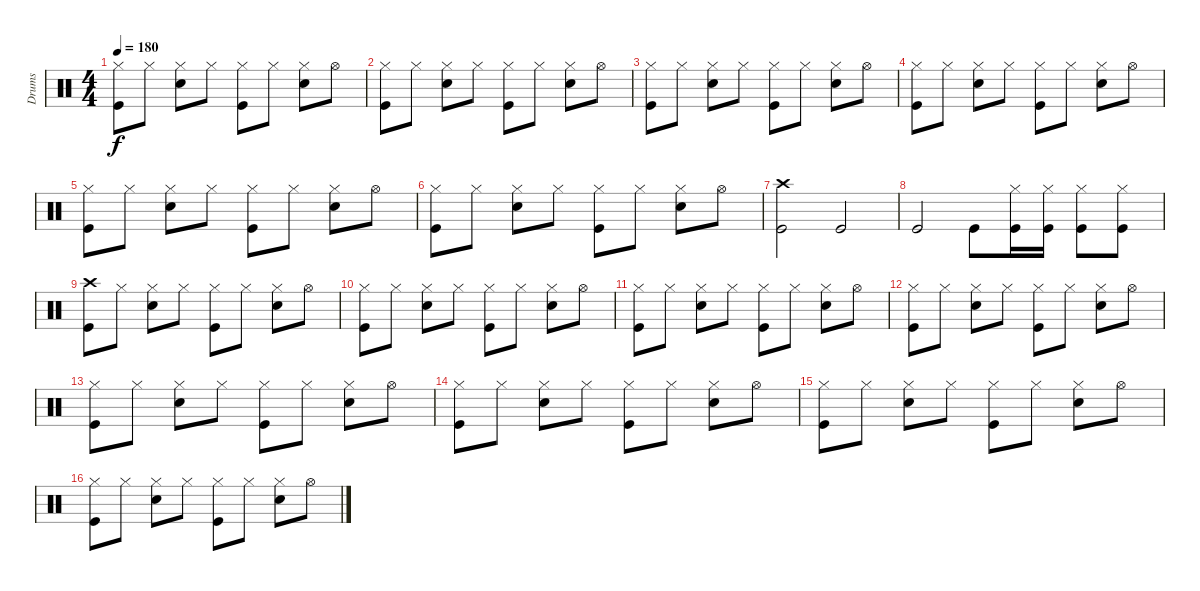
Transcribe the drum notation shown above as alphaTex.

\track ("Drums" "Drums") {instrument percussion}
\staff {score}
\articulation defaults
\ts (4 4)
\tempo 180
\clef neutral
\ks c
("Kick (hit)" "Hi-Hat (closed)").8{dy f} "Hi-Hat (closed)".8 ("Snare (hit) 2" "Hi-Hat (closed)").8 "Hi-Hat (closed)".8 ("Kick (hit)" "Hi-Hat (closed)").8 "Hi-Hat (closed)".8 ("Snare (hit) 2" "Hi-Hat (closed)").8 "Hi-Hat (open)".8 |
("Kick (hit)" "Hi-Hat (closed)").8 "Hi-Hat (closed)".8 ("Snare (hit) 2" "Hi-Hat (closed)").8 "Hi-Hat (closed)".8 ("Kick (hit)" "Hi-Hat (closed)").8 "Hi-Hat (closed)".8 ("Snare (hit) 2" "Hi-Hat (closed)").8 "Hi-Hat (open)".8 |
("Kick (hit)" "Hi-Hat (closed)").8 "Hi-Hat (closed)".8 ("Snare (hit) 2" "Hi-Hat (closed)").8 "Hi-Hat (closed)".8 ("Kick (hit)" "Hi-Hat (closed)").8 "Hi-Hat (closed)".8 ("Snare (hit) 2" "Hi-Hat (closed)").8 "Hi-Hat (open)".8 |
("Kick (hit)" "Hi-Hat (closed)").8 "Hi-Hat (closed)".8 ("Snare (hit) 2" "Hi-Hat (closed)").8 "Hi-Hat (closed)".8 ("Kick (hit)" "Hi-Hat (closed)").8 "Hi-Hat (closed)".8 ("Snare (hit) 2" "Hi-Hat (closed)").8 "Hi-Hat (open)".8 |
("Kick (hit)" "Hi-Hat (closed)").8 "Hi-Hat (closed)".8 ("Snare (hit) 2" "Hi-Hat (closed)").8 "Hi-Hat (closed)".8 ("Kick (hit)" "Hi-Hat (closed)").8 "Hi-Hat (closed)".8 ("Snare (hit) 2" "Hi-Hat (closed)").8 "Hi-Hat (open)".8 |
("Kick (hit)" "Hi-Hat (closed)").8 "Hi-Hat (closed)".8 ("Snare (hit) 2" "Hi-Hat (closed)").8 "Hi-Hat (closed)".8 ("Kick (hit)" "Hi-Hat (closed)").8 "Hi-Hat (closed)".8 ("Snare (hit) 2" "Hi-Hat (closed)").8 "Hi-Hat (open)".8 |
("Kick (hit)" "Crash high (hit)").2 "Kick (hit)".2 |
"Kick (hit)".2 "Kick (hit)".8 ("Kick (hit)" "Hi-Hat (closed)").16 ("Kick (hit)" "Hi-Hat (closed)").16 ("Kick (hit)" "Hi-Hat (closed)").8 ("Kick (hit)" "Hi-Hat (closed)").8 |
("Kick (hit)" "Crash high (hit)").8 "Hi-Hat (closed)".8 ("Snare (hit) 2" "Hi-Hat (closed)").8 "Hi-Hat (closed)".8 ("Kick (hit)" "Hi-Hat (closed)").8 "Hi-Hat (closed)".8 ("Snare (hit) 2" "Hi-Hat (closed)").8 "Hi-Hat (open)".8 |
("Kick (hit)" "Hi-Hat (closed)").8 "Hi-Hat (closed)".8 ("Snare (hit) 2" "Hi-Hat (closed)").8 "Hi-Hat (closed)".8 ("Kick (hit)" "Hi-Hat (closed)").8 "Hi-Hat (closed)".8 ("Snare (hit) 2" "Hi-Hat (closed)").8 "Hi-Hat (open)".8 |
("Kick (hit)" "Hi-Hat (closed)").8 "Hi-Hat (closed)".8 ("Snare (hit) 2" "Hi-Hat (closed)").8 "Hi-Hat (closed)".8 ("Kick (hit)" "Hi-Hat (closed)").8 "Hi-Hat (closed)".8 ("Snare (hit) 2" "Hi-Hat (closed)").8 "Hi-Hat (open)".8 |
("Kick (hit)" "Hi-Hat (closed)").8 "Hi-Hat (closed)".8 ("Snare (hit) 2" "Hi-Hat (closed)").8 "Hi-Hat (closed)".8 ("Kick (hit)" "Hi-Hat (closed)").8 "Hi-Hat (closed)".8 ("Snare (hit) 2" "Hi-Hat (closed)").8 "Hi-Hat (open)".8 |
("Kick (hit)" "Hi-Hat (closed)").8 "Hi-Hat (closed)".8 ("Snare (hit) 2" "Hi-Hat (closed)").8 "Hi-Hat (closed)".8 ("Kick (hit)" "Hi-Hat (closed)").8 "Hi-Hat (closed)".8 ("Snare (hit) 2" "Hi-Hat (closed)").8 "Hi-Hat (open)".8 |
("Kick (hit)" "Hi-Hat (closed)").8 "Hi-Hat (closed)".8 ("Snare (hit) 2" "Hi-Hat (closed)").8 "Hi-Hat (closed)".8 ("Kick (hit)" "Hi-Hat (closed)").8 "Hi-Hat (closed)".8 ("Snare (hit) 2" "Hi-Hat (closed)").8 "Hi-Hat (open)".8 |
("Kick (hit)" "Hi-Hat (closed)").8 "Hi-Hat (closed)".8 ("Snare (hit) 2" "Hi-Hat (closed)").8 "Hi-Hat (closed)".8 ("Kick (hit)" "Hi-Hat (closed)").8 "Hi-Hat (closed)".8 ("Snare (hit) 2" "Hi-Hat (closed)").8 "Hi-Hat (open)".8 |
("Kick (hit)" "Hi-Hat (closed)").8 "Hi-Hat (closed)".8 ("Snare (hit) 2" "Hi-Hat (closed)").8 "Hi-Hat (closed)".8 ("Kick (hit)" "Hi-Hat (closed)").8 "Hi-Hat (closed)".8 ("Snare (hit) 2" "Hi-Hat (closed)").8 "Hi-Hat (open)".8
